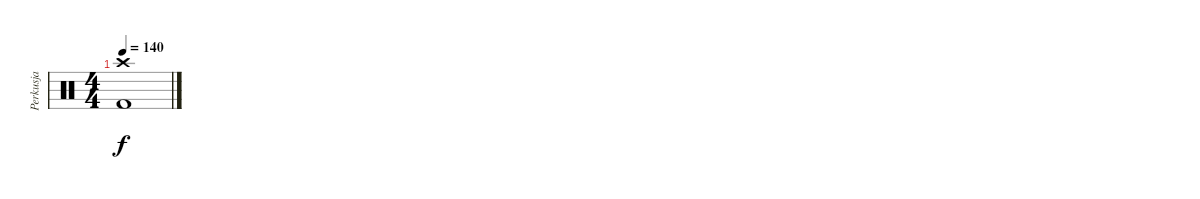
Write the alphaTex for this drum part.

\track ("Perkusja" "Perkusja") {instrument percussion}
\staff {score}
\articulation defaults
\ts (4 4)
\tempo 140
\clef neutral
\ks c
("Crash high (hit)" "Kick (hit) 2").1{dy f}
